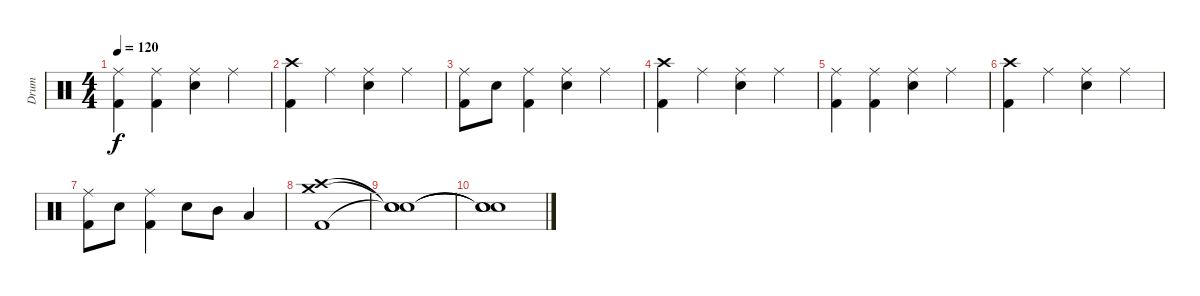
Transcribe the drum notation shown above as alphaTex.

\track ("Drum" "Drum") {instrument percussion}
\staff {score}
\articulation defaults
\ts (4 4)
\tempo 120
\clef neutral
\ks c
("Ride (middle)" "Kick (hit) 2").4{dy f} ("Ride (middle)" "Kick (hit) 2").4 ("Snare (hit) 2" "Ride (middle)").4 "Ride (middle)".4 |
("Crash high (hit)" "Kick (hit) 2").4 "Ride (middle)".4 ("Ride (middle)" "Snare (hit) 2").4 "Ride (middle)".4 |
("Ride (middle)" "Kick (hit) 2").8 "Snare (hit) 2".8 ("Ride (middle)" "Kick (hit) 2").4 ("Ride (middle)" "Snare (hit) 2").4 "Ride (middle)".4 |
("Crash high (hit)" "Kick (hit) 2").4 "Ride (middle)".4 ("Ride (middle)" "Snare (hit) 2").4 "Ride (middle)".4 |
("Ride (middle)" "Kick (hit) 2").4 ("Ride (middle)" "Kick (hit) 2").4 ("Snare (hit) 2" "Ride (middle)").4 "Ride (middle)".4 |
("Crash high (hit)" "Kick (hit) 2").4 "Ride (middle)".4 ("Ride (middle)" "Snare (hit) 2").4 "Ride (middle)".4 |
("Ride (middle)" "Kick (hit) 2").8 "Snare (hit) 2".8 ("Ride (middle)" "Kick (hit) 2").4 "Snare (hit) 2".8 "Mid Tom (hit)".8 "Low Floor Tom (hit)".4 |
("Crash high (hit)" "Kick (hit) 2" "Crash medium (hit)").1 |
("Snare (hit)"{t} "Snare (hit)"{t} "Snare (hit)"{t}).1 |
("Snare (hit)"{t} "Snare (hit)"{t} "Snare (hit)"{t}).1
